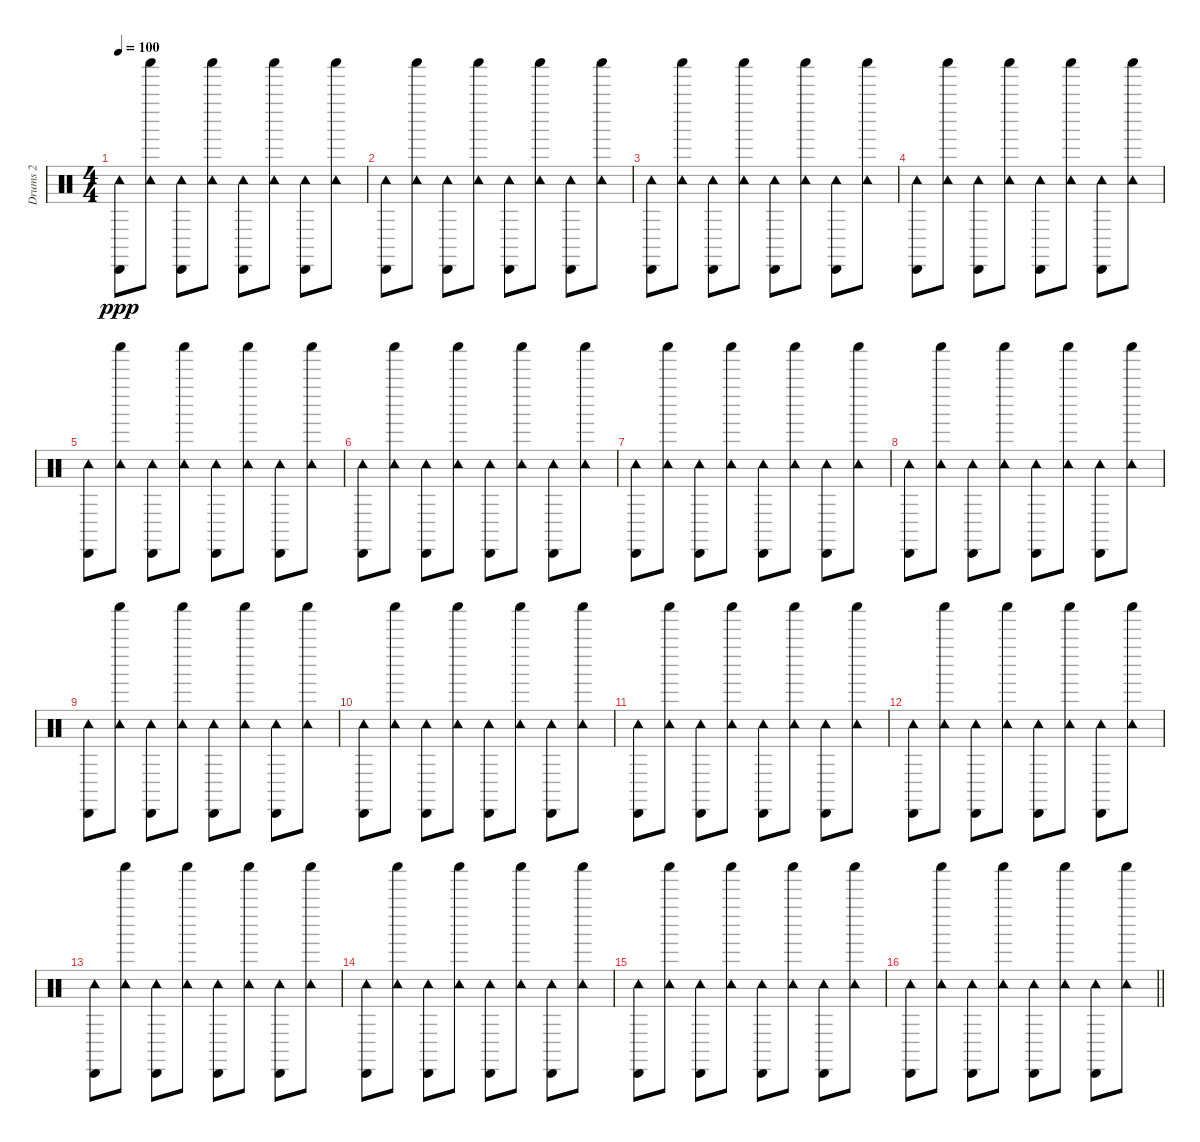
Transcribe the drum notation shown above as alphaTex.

\track ("Drums 2" "Drums 2") {instrument percussion}
\staff {score}
\articulation defaults
\ts (4 4)
\tempo 100
\clef neutral
\ks c
("Tambourine (hit)" "Cabasa (hit)").8{dy ppp} ("Tambourine (hit)" "Shaker (hit)").8 ("Tambourine (hit)" "Cabasa (hit)").8 ("Tambourine (hit)" "Shaker (hit)").8 ("Tambourine (hit)" "Cabasa (hit)").8 ("Tambourine (hit)" "Shaker (hit)").8 ("Tambourine (hit)" "Cabasa (hit)").8 ("Tambourine (hit)" "Shaker (hit)").8 |
("Tambourine (hit)" "Cabasa (hit)").8 ("Tambourine (hit)" "Shaker (hit)").8 ("Tambourine (hit)" "Cabasa (hit)").8 ("Tambourine (hit)" "Shaker (hit)").8 ("Tambourine (hit)" "Cabasa (hit)").8 ("Tambourine (hit)" "Shaker (hit)").8 ("Tambourine (hit)" "Cabasa (hit)").8 ("Tambourine (hit)" "Shaker (hit)").8 |
("Tambourine (hit)" "Cabasa (hit)").8 ("Tambourine (hit)" "Shaker (hit)").8 ("Tambourine (hit)" "Cabasa (hit)").8 ("Tambourine (hit)" "Shaker (hit)").8 ("Tambourine (hit)" "Cabasa (hit)").8 ("Tambourine (hit)" "Shaker (hit)").8 ("Tambourine (hit)" "Cabasa (hit)").8 ("Tambourine (hit)" "Shaker (hit)").8 |
("Tambourine (hit)" "Cabasa (hit)").8 ("Tambourine (hit)" "Shaker (hit)").8 ("Tambourine (hit)" "Cabasa (hit)").8 ("Tambourine (hit)" "Shaker (hit)").8 ("Tambourine (hit)" "Cabasa (hit)").8 ("Tambourine (hit)" "Shaker (hit)").8 ("Tambourine (hit)" "Cabasa (hit)").8 ("Tambourine (hit)" "Shaker (hit)").8 |
("Tambourine (hit)" "Cabasa (hit)").8 ("Tambourine (hit)" "Shaker (hit)").8 ("Tambourine (hit)" "Cabasa (hit)").8 ("Tambourine (hit)" "Shaker (hit)").8 ("Tambourine (hit)" "Cabasa (hit)").8 ("Tambourine (hit)" "Shaker (hit)").8 ("Tambourine (hit)" "Cabasa (hit)").8 ("Tambourine (hit)" "Shaker (hit)").8 |
("Tambourine (hit)" "Cabasa (hit)").8 ("Tambourine (hit)" "Shaker (hit)").8 ("Tambourine (hit)" "Cabasa (hit)").8 ("Tambourine (hit)" "Shaker (hit)").8 ("Tambourine (hit)" "Cabasa (hit)").8 ("Tambourine (hit)" "Shaker (hit)").8 ("Tambourine (hit)" "Cabasa (hit)").8 ("Tambourine (hit)" "Shaker (hit)").8 |
("Tambourine (hit)" "Cabasa (hit)").8 ("Tambourine (hit)" "Shaker (hit)").8 ("Tambourine (hit)" "Cabasa (hit)").8 ("Tambourine (hit)" "Shaker (hit)").8 ("Tambourine (hit)" "Cabasa (hit)").8 ("Tambourine (hit)" "Shaker (hit)").8 ("Tambourine (hit)" "Cabasa (hit)").8 ("Tambourine (hit)" "Shaker (hit)").8 |
("Tambourine (hit)" "Cabasa (hit)").8 ("Tambourine (hit)" "Shaker (hit)").8 ("Tambourine (hit)" "Cabasa (hit)").8 ("Tambourine (hit)" "Shaker (hit)").8 ("Tambourine (hit)" "Cabasa (hit)").8 ("Tambourine (hit)" "Shaker (hit)").8 ("Tambourine (hit)" "Cabasa (hit)").8 ("Tambourine (hit)" "Shaker (hit)").8 |
("Tambourine (hit)" "Cabasa (hit)").8 ("Tambourine (hit)" "Shaker (hit)").8 ("Tambourine (hit)" "Cabasa (hit)").8 ("Tambourine (hit)" "Shaker (hit)").8 ("Tambourine (hit)" "Cabasa (hit)").8 ("Tambourine (hit)" "Shaker (hit)").8 ("Tambourine (hit)" "Cabasa (hit)").8 ("Tambourine (hit)" "Shaker (hit)").8 |
("Tambourine (hit)" "Cabasa (hit)").8 ("Tambourine (hit)" "Shaker (hit)").8 ("Tambourine (hit)" "Cabasa (hit)").8 ("Tambourine (hit)" "Shaker (hit)").8 ("Tambourine (hit)" "Cabasa (hit)").8 ("Tambourine (hit)" "Shaker (hit)").8 ("Tambourine (hit)" "Cabasa (hit)").8 ("Tambourine (hit)" "Shaker (hit)").8 |
("Tambourine (hit)" "Cabasa (hit)").8 ("Tambourine (hit)" "Shaker (hit)").8 ("Tambourine (hit)" "Cabasa (hit)").8 ("Tambourine (hit)" "Shaker (hit)").8 ("Tambourine (hit)" "Cabasa (hit)").8 ("Tambourine (hit)" "Shaker (hit)").8 ("Tambourine (hit)" "Cabasa (hit)").8 ("Tambourine (hit)" "Shaker (hit)").8 |
("Tambourine (hit)" "Cabasa (hit)").8 ("Tambourine (hit)" "Shaker (hit)").8 ("Tambourine (hit)" "Cabasa (hit)").8 ("Tambourine (hit)" "Shaker (hit)").8 ("Tambourine (hit)" "Cabasa (hit)").8 ("Tambourine (hit)" "Shaker (hit)").8 ("Tambourine (hit)" "Cabasa (hit)").8 ("Tambourine (hit)" "Shaker (hit)").8 |
("Tambourine (hit)" "Cabasa (hit)").8 ("Tambourine (hit)" "Shaker (hit)").8 ("Tambourine (hit)" "Cabasa (hit)").8 ("Tambourine (hit)" "Shaker (hit)").8 ("Tambourine (hit)" "Cabasa (hit)").8 ("Tambourine (hit)" "Shaker (hit)").8 ("Tambourine (hit)" "Cabasa (hit)").8 ("Tambourine (hit)" "Shaker (hit)").8 |
("Tambourine (hit)" "Cabasa (hit)").8 ("Tambourine (hit)" "Shaker (hit)").8 ("Tambourine (hit)" "Cabasa (hit)").8 ("Tambourine (hit)" "Shaker (hit)").8 ("Tambourine (hit)" "Cabasa (hit)").8 ("Tambourine (hit)" "Shaker (hit)").8 ("Tambourine (hit)" "Cabasa (hit)").8 ("Tambourine (hit)" "Shaker (hit)").8 |
("Tambourine (hit)" "Cabasa (hit)").8 ("Tambourine (hit)" "Shaker (hit)").8 ("Tambourine (hit)" "Cabasa (hit)").8 ("Tambourine (hit)" "Shaker (hit)").8 ("Tambourine (hit)" "Cabasa (hit)").8 ("Tambourine (hit)" "Shaker (hit)").8 ("Tambourine (hit)" "Cabasa (hit)").8 ("Tambourine (hit)" "Shaker (hit)").8 |
\barLineRight lightlight
("Tambourine (hit)" "Cabasa (hit)").8 ("Tambourine (hit)" "Shaker (hit)").8 ("Tambourine (hit)" "Cabasa (hit)").8 ("Tambourine (hit)" "Shaker (hit)").8 ("Tambourine (hit)" "Cabasa (hit)").8 ("Tambourine (hit)" "Shaker (hit)").8 ("Tambourine (hit)" "Cabasa (hit)").8 ("Tambourine (hit)" "Shaker (hit)").8
